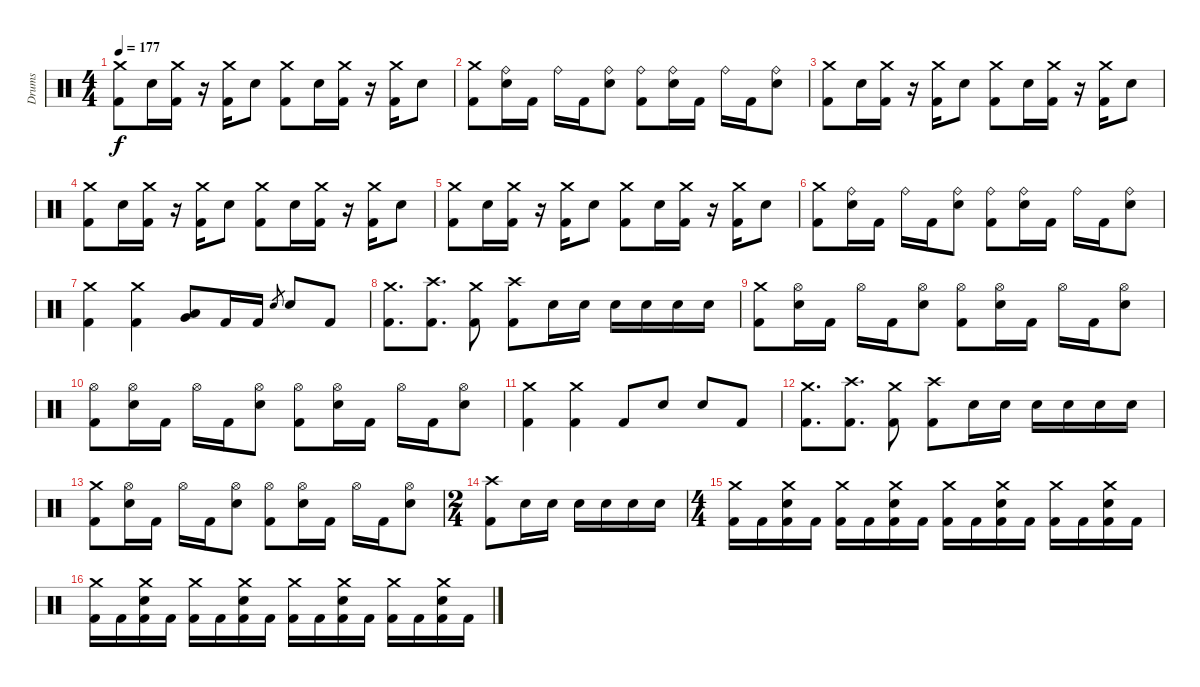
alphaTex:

\track ("Drums" "Drums") {instrument percussion}
\staff {score}
\articulation defaults
\ts (4 4)
\tempo 177
\clef neutral
\ks c
("Crash medium (hit)" "Kick (hit) 2").8{dy f} "Snare (hit) 2".16 ("Crash medium (hit)" "Kick (hit) 2").16 r.16 ("Crash medium (hit)" "Kick (hit) 2").16 "Snare (hit) 2".8 ("Crash medium (hit)" "Kick (hit) 2").8 "Snare (hit) 2".16 ("Crash medium (hit)" "Kick (hit) 2").16 r.16 ("Crash medium (hit)" "Kick (hit) 2").16 "Snare (hit) 2".8 |
("Crash medium (hit)" "Kick (hit) 2").8 ("Ride (bell)" "Snare (hit) 2").16 "Kick (hit) 2".16 "Ride (bell)".16 "Kick (hit) 2".16 ("Ride (bell)" "Snare (hit) 2").8 ("Ride (bell)" "Kick (hit) 2").8 ("Ride (bell)" "Snare (hit) 2").16 "Kick (hit) 2".16 "Ride (bell)".16 "Kick (hit) 2".16 ("Ride (bell)" "Snare (hit) 2").8 |
("Crash medium (hit)" "Kick (hit) 2").8 "Snare (hit) 2".16 ("Crash medium (hit)" "Kick (hit) 2").16 r.16 ("Crash medium (hit)" "Kick (hit) 2").16 "Snare (hit) 2".8 ("Crash medium (hit)" "Kick (hit) 2").8 "Snare (hit) 2".16 ("Crash medium (hit)" "Kick (hit) 2").16 r.16 ("Crash medium (hit)" "Kick (hit) 2").16 "Snare (hit) 2".8 |
("Crash medium (hit)" "Kick (hit) 2").8 "Snare (hit) 2".16 ("Crash medium (hit)" "Kick (hit) 2").16 r.16 ("Crash medium (hit)" "Kick (hit) 2").16 "Snare (hit) 2".8 ("Crash medium (hit)" "Kick (hit) 2").8 "Snare (hit) 2".16 ("Crash medium (hit)" "Kick (hit) 2").16 r.16 ("Crash medium (hit)" "Kick (hit) 2").16 "Snare (hit) 2".8 |
("Crash medium (hit)" "Kick (hit) 2").8 "Snare (hit) 2".16 ("Crash medium (hit)" "Kick (hit) 2").16 r.16 ("Crash medium (hit)" "Kick (hit) 2").16 "Snare (hit) 2".8 ("Crash medium (hit)" "Kick (hit) 2").8 "Snare (hit) 2".16 ("Crash medium (hit)" "Kick (hit) 2").16 r.16 ("Crash medium (hit)" "Kick (hit) 2").16 "Snare (hit) 2".8 |
("Crash medium (hit)" "Kick (hit) 2").8 ("Ride (bell)" "Snare (hit) 2").16 "Kick (hit) 2".16 "Ride (bell)".16 "Kick (hit) 2".16 ("Ride (bell)" "Snare (hit) 2").8 ("Ride (bell)" "Kick (hit) 2").8 ("Ride (bell)" "Snare (hit) 2").16 "Kick (hit) 2".16 "Ride (bell)".16 "Kick (hit) 2".16 ("Ride (bell)" "Snare (hit) 2").8 |
("Crash medium (hit)" "Kick (hit) 2").4 ("Crash medium (hit)" "Kick (hit) 2").4 ("Very Low Tom (hit)" "Low Floor Tom (hit)").8 "Kick (hit) 2".16 "Kick (hit) 2".16 "Snare (hit) 2".8{gr} "Snare (hit) 2".8 "Kick (hit) 2".8 |
("Crash medium (hit)" "Kick (hit) 2").8{d} ("Crash high (hit)" "Kick (hit) 2").8{d} ("Crash medium (hit)" "Kick (hit) 2").8 ("Crash high (hit)" "Kick (hit) 2").8 "Snare (hit) 2".16 "Snare (hit) 2".16 "Snare (hit) 2".16 "Snare (hit) 2".16 "Snare (hit) 2".16 "Snare (hit) 2".16 |
("Crash medium (hit)" "Kick (hit) 2").8 ("Hi-Hat (open)" "Snare (hit) 2").16 "Kick (hit) 2".16 "Hi-Hat (open)".16 "Kick (hit) 2".16 ("Hi-Hat (open)" "Snare (hit) 2").8 ("Hi-Hat (open)" "Kick (hit) 2").8 ("Hi-Hat (open)" "Snare (hit) 2").16 "Kick (hit) 2".16 "Hi-Hat (open)".16 "Kick (hit) 2".16 ("Hi-Hat (open)" "Snare (hit) 2").8 |
("Hi-Hat (open)" "Kick (hit) 2").8 ("Hi-Hat (open)" "Snare (hit) 2").16 "Kick (hit) 2".16 "Hi-Hat (open)".16 "Kick (hit) 2".16 ("Hi-Hat (open)" "Snare (hit) 2").8 ("Hi-Hat (open)" "Kick (hit) 2").8 ("Hi-Hat (open)" "Snare (hit) 2").16 "Kick (hit) 2".16 "Hi-Hat (open)".16 "Kick (hit) 2".16 ("Hi-Hat (open)" "Snare (hit) 2").8 |
("Crash medium (hit)" "Kick (hit) 2").4 ("Crash medium (hit)" "Kick (hit) 2").4 "Kick (hit) 2".8 "Snare (hit) 2".8 "Snare (hit) 2".8 "Kick (hit) 2".8 |
("Crash medium (hit)" "Kick (hit) 2").8{d} ("Crash high (hit)" "Kick (hit) 2").8{d} ("Crash medium (hit)" "Kick (hit) 2").8 ("Crash high (hit)" "Kick (hit) 2").8 "Snare (hit) 2".16 "Snare (hit) 2".16 "Snare (hit) 2".16 "Snare (hit) 2".16 "Snare (hit) 2".16 "Snare (hit) 2".16 |
("Crash medium (hit)" "Kick (hit) 2").8 ("Hi-Hat (open)" "Snare (hit) 2").16 "Kick (hit) 2".16 "Hi-Hat (open)".16 "Kick (hit) 2".16 ("Hi-Hat (open)" "Snare (hit) 2").8 ("Hi-Hat (open)" "Kick (hit) 2").8 ("Hi-Hat (open)" "Snare (hit) 2").16 "Kick (hit) 2".16 "Hi-Hat (open)".16 "Kick (hit) 2".16 ("Hi-Hat (open)" "Snare (hit) 2").8 |
\ts (2 4)
("Crash high (hit)" "Kick (hit) 2").8 "Snare (hit) 2".16 "Snare (hit) 2".16 "Snare (hit) 2".16 "Snare (hit) 2".16 "Snare (hit) 2".16 "Snare (hit) 2".16 |
\ts (4 4)
("Crash medium (hit)" "Kick (hit) 2").16 "Kick (hit) 2".16 ("Crash medium (hit)" "Snare (hit) 2" "Kick (hit) 2").16 "Kick (hit) 2".16 ("Crash medium (hit)" "Kick (hit) 2").16 "Kick (hit) 2".16 ("Crash medium (hit)" "Snare (hit) 2" "Kick (hit) 2").16 "Kick (hit) 2".16 ("Crash medium (hit)" "Kick (hit) 2").16 "Kick (hit) 2".16 ("Crash medium (hit)" "Snare (hit) 2" "Kick (hit) 2").16 "Kick (hit) 2".16 ("Crash medium (hit)" "Kick (hit) 2").16 "Kick (hit) 2".16 ("Crash medium (hit)" "Snare (hit) 2" "Kick (hit) 2").16 "Kick (hit) 2".16 |
("Crash medium (hit)" "Kick (hit) 2").16 "Kick (hit) 2".16 ("Crash medium (hit)" "Snare (hit) 2" "Kick (hit) 2").16 "Kick (hit) 2".16 ("Crash medium (hit)" "Kick (hit) 2").16 "Kick (hit) 2".16 ("Crash medium (hit)" "Snare (hit) 2" "Kick (hit) 2").16 "Kick (hit) 2".16 ("Crash medium (hit)" "Kick (hit) 2").16 "Kick (hit) 2".16 ("Crash medium (hit)" "Snare (hit) 2" "Kick (hit) 2").16 "Kick (hit) 2".16 ("Crash medium (hit)" "Kick (hit) 2").16 "Kick (hit) 2".16 ("Crash medium (hit)" "Snare (hit) 2" "Kick (hit) 2").16 "Kick (hit) 2".16
